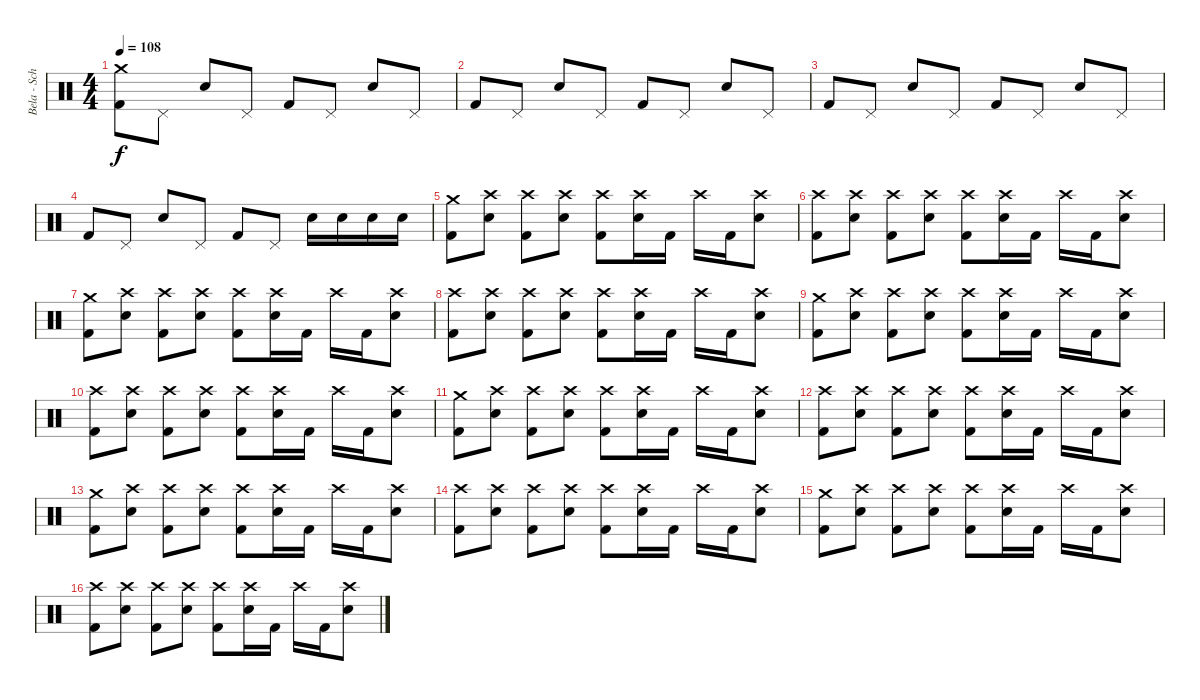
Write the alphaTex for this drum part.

\track ("Bela - Schlagzeug" "Bela - Sch") {instrument percussion}
\staff {score}
\articulation defaults
\ts (4 4)
\tempo 108
\clef neutral
\ks c
("Crash medium (hit)" "Kick (hit) 2").8{dy f} "Pedal Hi-Hat (hit)".8 "Snare (hit) 2".8 "Pedal Hi-Hat (hit)".8 "Kick (hit) 2".8 "Pedal Hi-Hat (hit)".8 "Snare (hit) 2".8 "Pedal Hi-Hat (hit)".8 |
"Kick (hit) 2".8 "Pedal Hi-Hat (hit)".8 "Snare (hit) 2".8 "Pedal Hi-Hat (hit)".8 "Kick (hit) 2".8 "Pedal Hi-Hat (hit)".8 "Snare (hit) 2".8 "Pedal Hi-Hat (hit)".8 |
"Kick (hit) 2".8 "Pedal Hi-Hat (hit)".8 "Snare (hit) 2".8 "Pedal Hi-Hat (hit)".8 "Kick (hit) 2".8 "Pedal Hi-Hat (hit)".8 "Snare (hit) 2".8 "Pedal Hi-Hat (hit)".8 |
"Kick (hit) 2".8 "Pedal Hi-Hat (hit)".8 "Snare (hit) 2".8 "Pedal Hi-Hat (hit)".8 "Kick (hit) 2".8 "Pedal Hi-Hat (hit)".8 "Snare (hit) 2".16 "Snare (hit) 2".16 "Snare (hit) 2".16 "Snare (hit) 2".16 |
("Crash medium (hit)" "Kick (hit) 2").8 ("Crash high (hit)" "Snare (hit) 2").8 ("Crash high (hit)" "Kick (hit) 2").8 ("Crash high (hit)" "Snare (hit) 2").8 ("Crash high (hit)" "Kick (hit) 2").8 ("Crash high (hit)" "Snare (hit) 2").16 "Kick (hit) 2".16 "Crash high (hit)".16 "Kick (hit) 2".16 ("Crash high (hit)" "Snare (hit) 2").8 |
("Crash high (hit)" "Kick (hit) 2").8 ("Crash high (hit)" "Snare (hit) 2").8 ("Crash high (hit)" "Kick (hit) 2").8 ("Crash high (hit)" "Snare (hit) 2").8 ("Crash high (hit)" "Kick (hit) 2").8 ("Crash high (hit)" "Snare (hit) 2").16 "Kick (hit) 2".16 "Crash high (hit)".16 "Kick (hit) 2".16 ("Crash high (hit)" "Snare (hit) 2").8 |
("Crash medium (hit)" "Kick (hit) 2").8 ("Crash high (hit)" "Snare (hit) 2").8 ("Crash high (hit)" "Kick (hit) 2").8 ("Crash high (hit)" "Snare (hit) 2").8 ("Crash high (hit)" "Kick (hit) 2").8 ("Crash high (hit)" "Snare (hit) 2").16 "Kick (hit) 2".16 "Crash high (hit)".16 "Kick (hit) 2".16 ("Crash high (hit)" "Snare (hit) 2").8 |
("Crash high (hit)" "Kick (hit) 2").8 ("Crash high (hit)" "Snare (hit) 2").8 ("Crash high (hit)" "Kick (hit) 2").8 ("Crash high (hit)" "Snare (hit) 2").8 ("Crash high (hit)" "Kick (hit) 2").8 ("Crash high (hit)" "Snare (hit) 2").16 "Kick (hit) 2".16 "Crash high (hit)".16 "Kick (hit) 2".16 ("Crash high (hit)" "Snare (hit) 2").8 |
("Crash medium (hit)" "Kick (hit) 2").8 ("Crash high (hit)" "Snare (hit) 2").8 ("Crash high (hit)" "Kick (hit) 2").8 ("Crash high (hit)" "Snare (hit) 2").8 ("Crash high (hit)" "Kick (hit) 2").8 ("Crash high (hit)" "Snare (hit) 2").16 "Kick (hit) 2".16 "Crash high (hit)".16 "Kick (hit) 2".16 ("Crash high (hit)" "Snare (hit) 2").8 |
("Crash high (hit)" "Kick (hit) 2").8 ("Crash high (hit)" "Snare (hit) 2").8 ("Crash high (hit)" "Kick (hit) 2").8 ("Crash high (hit)" "Snare (hit) 2").8 ("Crash high (hit)" "Kick (hit) 2").8 ("Crash high (hit)" "Snare (hit) 2").16 "Kick (hit) 2".16 "Crash high (hit)".16 "Kick (hit) 2".16 ("Crash high (hit)" "Snare (hit) 2").8 |
("Crash medium (hit)" "Kick (hit) 2").8 ("Crash high (hit)" "Snare (hit) 2").8 ("Crash high (hit)" "Kick (hit) 2").8 ("Crash high (hit)" "Snare (hit) 2").8 ("Crash high (hit)" "Kick (hit) 2").8 ("Crash high (hit)" "Snare (hit) 2").16 "Kick (hit) 2".16 "Crash high (hit)".16 "Kick (hit) 2".16 ("Crash high (hit)" "Snare (hit) 2").8 |
("Crash high (hit)" "Kick (hit) 2").8 ("Crash high (hit)" "Snare (hit) 2").8 ("Crash high (hit)" "Kick (hit) 2").8 ("Crash high (hit)" "Snare (hit) 2").8 ("Crash high (hit)" "Kick (hit) 2").8 ("Crash high (hit)" "Snare (hit) 2").16 "Kick (hit) 2".16 "Crash high (hit)".16 "Kick (hit) 2".16 ("Crash high (hit)" "Snare (hit) 2").8 |
("Crash medium (hit)" "Kick (hit) 2").8 ("Crash high (hit)" "Snare (hit) 2").8 ("Crash high (hit)" "Kick (hit) 2").8 ("Crash high (hit)" "Snare (hit) 2").8 ("Crash high (hit)" "Kick (hit) 2").8 ("Crash high (hit)" "Snare (hit) 2").16 "Kick (hit) 2".16 "Crash high (hit)".16 "Kick (hit) 2".16 ("Crash high (hit)" "Snare (hit) 2").8 |
("Crash high (hit)" "Kick (hit) 2").8 ("Crash high (hit)" "Snare (hit) 2").8 ("Crash high (hit)" "Kick (hit) 2").8 ("Crash high (hit)" "Snare (hit) 2").8 ("Crash high (hit)" "Kick (hit) 2").8 ("Crash high (hit)" "Snare (hit) 2").16 "Kick (hit) 2".16 "Crash high (hit)".16 "Kick (hit) 2".16 ("Crash high (hit)" "Snare (hit) 2").8 |
("Crash medium (hit)" "Kick (hit) 2").8 ("Crash high (hit)" "Snare (hit) 2").8 ("Crash high (hit)" "Kick (hit) 2").8 ("Crash high (hit)" "Snare (hit) 2").8 ("Crash high (hit)" "Kick (hit) 2").8 ("Crash high (hit)" "Snare (hit) 2").16 "Kick (hit) 2".16 "Crash high (hit)".16 "Kick (hit) 2".16 ("Crash high (hit)" "Snare (hit) 2").8 |
("Crash high (hit)" "Kick (hit) 2").8 ("Crash high (hit)" "Snare (hit) 2").8 ("Crash high (hit)" "Kick (hit) 2").8 ("Crash high (hit)" "Snare (hit) 2").8 ("Crash high (hit)" "Kick (hit) 2").8 ("Crash high (hit)" "Snare (hit) 2").16 "Kick (hit) 2".16 "Crash high (hit)".16 "Kick (hit) 2".16 ("Crash high (hit)" "Snare (hit) 2").8
